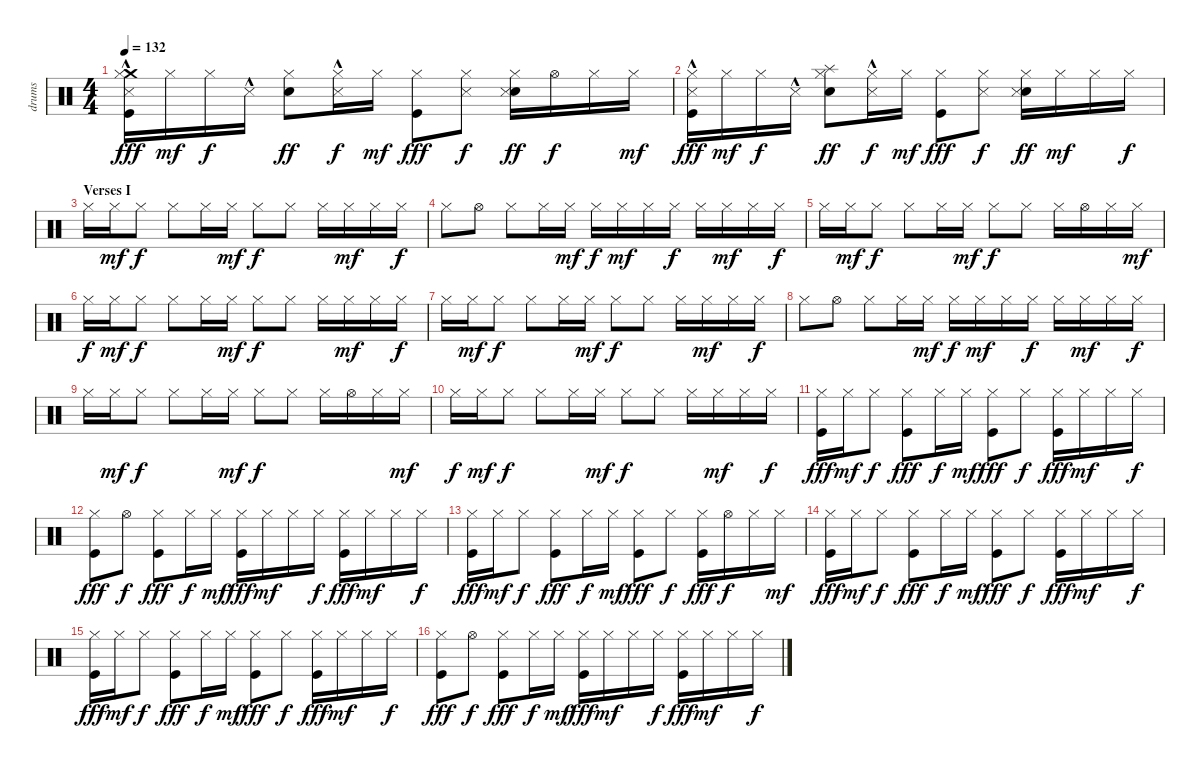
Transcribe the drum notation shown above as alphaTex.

\track ("drums" "drums") {instrument percussion}
\staff {score}
\articulation defaults
\ts (4 4)
\tempo 132
\clef neutral
\ks c
("Kick (hit)" "Crash medium (hit)" "Hi-Hat (closed)" "Snare (side stick) 3"{hac}).16{dy fff} "Hi-Hat (closed)".16{dy mf} "Hi-Hat (closed)".16{dy f} "Snare (side stick) 3"{hac}.16 ("Electric Snare (hit)" "Hi-Hat (closed)").8{dy ff} ("Hi-Hat (closed)" "Snare (side stick) 3"{hac}).16{dy f} "Hi-Hat (closed)".16{dy mf} ("Kick (hit)" "Hi-Hat (closed)").8{dy fff} ("Hi-Hat (closed)" "Snare (side stick) 3").8{dy f} ("Electric Snare (hit)" "Hi-Hat (closed)" "Snare (side stick) 3").16{dy ff} "Hi-Hat (open)".16{dy f} "Hi-Hat (closed)".16 "Hi-Hat (closed)".16{dy mf} |
("Kick (hit)" "Hi-Hat (closed)" "Snare (side stick) 3"{hac}).16{dy fff} "Hi-Hat (closed)".16{dy mf} "Hi-Hat (closed)".16{dy f} "Snare (side stick) 3"{hac}.16 ("Electric Snare (hit)" "Splash (hit)" "Hi-Hat (closed)").8{dy ff} ("Hi-Hat (closed)" "Snare (side stick) 3"{hac}).16{dy f} "Hi-Hat (closed)".16{dy mf} ("Kick (hit)" "Hi-Hat (closed)").8{dy fff} ("Hi-Hat (closed)" "Snare (side stick) 3").8{dy f} ("Electric Snare (hit)" "Hi-Hat (closed)" "Snare (side stick) 3").16{dy ff} "Hi-Hat (closed)".16{dy mf} "Hi-Hat (closed)".16 "Hi-Hat (closed)".16{dy f} |
\section ("" "Verses I")
"Hi-Hat (closed)".16 "Hi-Hat (closed)".16{dy mf} "Hi-Hat (closed)".8{dy f} "Hi-Hat (closed)".8 "Hi-Hat (closed)".16 "Hi-Hat (closed)".16{dy mf} "Hi-Hat (closed)".8{dy f} "Hi-Hat (closed)".8 "Hi-Hat (closed)".16 "Hi-Hat (closed)".16{dy mf} "Hi-Hat (closed)".16 "Hi-Hat (closed)".16{dy f} |
"Hi-Hat (closed)".8 "Hi-Hat (open)".8 "Hi-Hat (closed)".8 "Hi-Hat (closed)".16 "Hi-Hat (closed)".16{dy mf} "Hi-Hat (closed)".16{dy f} "Hi-Hat (closed)".16{dy mf} "Hi-Hat (closed)".16 "Hi-Hat (closed)".16{dy f} "Hi-Hat (closed)".16 "Hi-Hat (closed)".16{dy mf} "Hi-Hat (closed)".16 "Hi-Hat (closed)".16{dy f} |
"Hi-Hat (closed)".16 "Hi-Hat (closed)".16{dy mf} "Hi-Hat (closed)".8{dy f} "Hi-Hat (closed)".8 "Hi-Hat (closed)".16 "Hi-Hat (closed)".16{dy mf} "Hi-Hat (closed)".8{dy f} "Hi-Hat (closed)".8 "Hi-Hat (closed)".16 "Hi-Hat (open)".16 "Hi-Hat (closed)".16 "Hi-Hat (closed)".16{dy mf} |
"Hi-Hat (closed)".16{dy f} "Hi-Hat (closed)".16{dy mf} "Hi-Hat (closed)".8{dy f} "Hi-Hat (closed)".8 "Hi-Hat (closed)".16 "Hi-Hat (closed)".16{dy mf} "Hi-Hat (closed)".8{dy f} "Hi-Hat (closed)".8 "Hi-Hat (closed)".16 "Hi-Hat (closed)".16{dy mf} "Hi-Hat (closed)".16 "Hi-Hat (closed)".16{dy f} |
"Hi-Hat (closed)".16 "Hi-Hat (closed)".16{dy mf} "Hi-Hat (closed)".8{dy f} "Hi-Hat (closed)".8 "Hi-Hat (closed)".16 "Hi-Hat (closed)".16{dy mf} "Hi-Hat (closed)".8{dy f} "Hi-Hat (closed)".8 "Hi-Hat (closed)".16 "Hi-Hat (closed)".16{dy mf} "Hi-Hat (closed)".16 "Hi-Hat (closed)".16{dy f} |
"Hi-Hat (closed)".8 "Hi-Hat (open)".8 "Hi-Hat (closed)".8 "Hi-Hat (closed)".16 "Hi-Hat (closed)".16{dy mf} "Hi-Hat (closed)".16{dy f} "Hi-Hat (closed)".16{dy mf} "Hi-Hat (closed)".16 "Hi-Hat (closed)".16{dy f} "Hi-Hat (closed)".16 "Hi-Hat (closed)".16{dy mf} "Hi-Hat (closed)".16 "Hi-Hat (closed)".16{dy f} |
"Hi-Hat (closed)".16 "Hi-Hat (closed)".16{dy mf} "Hi-Hat (closed)".8{dy f} "Hi-Hat (closed)".8 "Hi-Hat (closed)".16 "Hi-Hat (closed)".16{dy mf} "Hi-Hat (closed)".8{dy f} "Hi-Hat (closed)".8 "Hi-Hat (closed)".16 "Hi-Hat (open)".16 "Hi-Hat (closed)".16 "Hi-Hat (closed)".16{dy mf} |
"Hi-Hat (closed)".16{dy f} "Hi-Hat (closed)".16{dy mf} "Hi-Hat (closed)".8{dy f} "Hi-Hat (closed)".8 "Hi-Hat (closed)".16 "Hi-Hat (closed)".16{dy mf} "Hi-Hat (closed)".8{dy f} "Hi-Hat (closed)".8 "Hi-Hat (closed)".16 "Hi-Hat (closed)".16{dy mf} "Hi-Hat (closed)".16 "Hi-Hat (closed)".16{dy f} |
("Kick (hit)" "Hi-Hat (closed)").16{dy fff} "Hi-Hat (closed)".16{dy mf} "Hi-Hat (closed)".8{dy f} ("Kick (hit)" "Hi-Hat (closed)").8{dy fff} "Hi-Hat (closed)".16{dy f} "Hi-Hat (closed)".16{dy mf} ("Kick (hit)" "Hi-Hat (closed)").8{dy fff} "Hi-Hat (closed)".8{dy f} ("Kick (hit)" "Hi-Hat (closed)").16{dy fff} "Hi-Hat (closed)".16{dy mf} "Hi-Hat (closed)".16 "Hi-Hat (closed)".16{dy f} |
("Kick (hit)" "Hi-Hat (closed)").8{dy fff} "Hi-Hat (open)".8{dy f} ("Kick (hit)" "Hi-Hat (closed)").8{dy fff} "Hi-Hat (closed)".16{dy f} "Hi-Hat (closed)".16{dy mf} ("Kick (hit)" "Hi-Hat (closed)").16{dy fff} "Hi-Hat (closed)".16{dy mf} "Hi-Hat (closed)".16 "Hi-Hat (closed)".16{dy f} ("Kick (hit)" "Hi-Hat (closed)").16{dy fff} "Hi-Hat (closed)".16{dy mf} "Hi-Hat (closed)".16 "Hi-Hat (closed)".16{dy f} |
("Kick (hit)" "Hi-Hat (closed)").16{dy fff} "Hi-Hat (closed)".16{dy mf} "Hi-Hat (closed)".8{dy f} ("Kick (hit)" "Hi-Hat (closed)").8{dy fff} "Hi-Hat (closed)".16{dy f} "Hi-Hat (closed)".16{dy mf} ("Kick (hit)" "Hi-Hat (closed)").8{dy fff} "Hi-Hat (closed)".8{dy f} ("Kick (hit)" "Hi-Hat (closed)").16{dy fff} "Hi-Hat (open)".16{dy f} "Hi-Hat (closed)".16 "Hi-Hat (closed)".16{dy mf} |
("Kick (hit)" "Hi-Hat (closed)").16{dy fff} "Hi-Hat (closed)".16{dy mf} "Hi-Hat (closed)".8{dy f} ("Kick (hit)" "Hi-Hat (closed)").8{dy fff} "Hi-Hat (closed)".16{dy f} "Hi-Hat (closed)".16{dy mf} ("Kick (hit)" "Hi-Hat (closed)").8{dy fff} "Hi-Hat (closed)".8{dy f} ("Kick (hit)" "Hi-Hat (closed)").16{dy fff} "Hi-Hat (closed)".16{dy mf} "Hi-Hat (closed)".16 "Hi-Hat (closed)".16{dy f} |
("Kick (hit)" "Hi-Hat (closed)").16{dy fff} "Hi-Hat (closed)".16{dy mf} "Hi-Hat (closed)".8{dy f} ("Kick (hit)" "Hi-Hat (closed)").8{dy fff} "Hi-Hat (closed)".16{dy f} "Hi-Hat (closed)".16{dy mf} ("Kick (hit)" "Hi-Hat (closed)").8{dy fff} "Hi-Hat (closed)".8{dy f} ("Kick (hit)" "Hi-Hat (closed)").16{dy fff} "Hi-Hat (closed)".16{dy mf} "Hi-Hat (closed)".16 "Hi-Hat (closed)".16{dy f} |
("Kick (hit)" "Hi-Hat (closed)").8{dy fff} "Hi-Hat (open)".8{dy f} ("Kick (hit)" "Hi-Hat (closed)").8{dy fff} "Hi-Hat (closed)".16{dy f} "Hi-Hat (closed)".16{dy mf} ("Kick (hit)" "Hi-Hat (closed)").16{dy fff} "Hi-Hat (closed)".16{dy mf} "Hi-Hat (closed)".16 "Hi-Hat (closed)".16{dy f} ("Kick (hit)" "Hi-Hat (closed)").16{dy fff} "Hi-Hat (closed)".16{dy mf} "Hi-Hat (closed)".16 "Hi-Hat (closed)".16{dy f}
